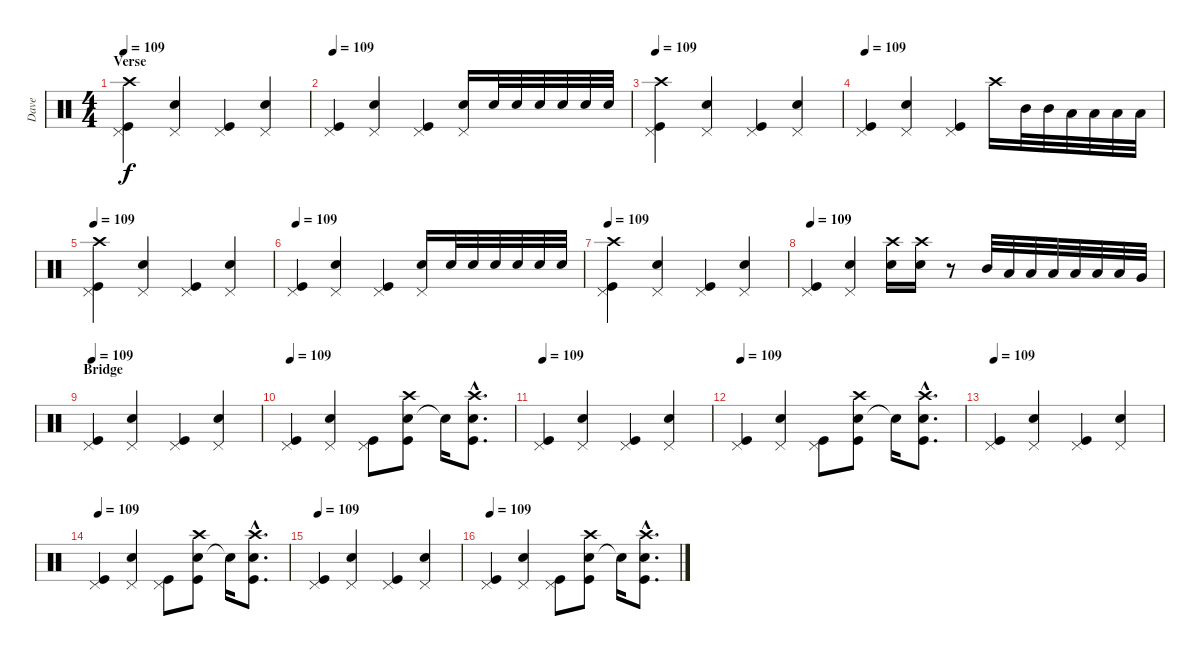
\track ("Dave" "Dave") {instrument percussion}
\staff {score}
\articulation defaults
\ts (4 4)
\section ("" "Verse")
\tempo 109
\clef neutral
\ks c
("Crash high (hit)" "Pedal Hi-Hat (hit)" "Kick (hit)").4{dy f} ("Pedal Hi-Hat (hit)" "Snare (hit) 2").4 ("Pedal Hi-Hat (hit)" "Kick (hit)").4 ("Pedal Hi-Hat (hit)" "Snare (hit) 2").4 |
\tempo 109
("Pedal Hi-Hat (hit)" "Kick (hit)").4 ("Pedal Hi-Hat (hit)" "Snare (hit) 2").4 ("Pedal Hi-Hat (hit)" "Kick (hit)").4 ("Pedal Hi-Hat (hit)" "Snare (hit) 2").16 "Snare (hit) 2".32 "Snare (hit) 2".32 "Snare (hit) 2".32 "Snare (hit) 2".32 "Snare (hit) 2".32 "Snare (hit) 2".32 |
\tempo 109
("Crash high (hit)" "Pedal Hi-Hat (hit)" "Kick (hit)").4 ("Pedal Hi-Hat (hit)" "Snare (hit) 2").4 ("Pedal Hi-Hat (hit)" "Kick (hit)").4 ("Pedal Hi-Hat (hit)" "Snare (hit) 2").4 |
\tempo 109
("Pedal Hi-Hat (hit)" "Kick (hit)").4 ("Pedal Hi-Hat (hit)" "Snare (hit) 2").4 ("Pedal Hi-Hat (hit)" "Kick (hit)").4 "Crash high (hit)".16 "Mid Tom (hit)".32 "Mid Tom (hit)".32 "Low Tom (hit)".32 "Low Tom (hit)".32 "Low Tom (hit)".32 "Low Tom (hit)".32 |
\tempo 109
("Crash high (hit)" "Pedal Hi-Hat (hit)" "Kick (hit)").4 ("Pedal Hi-Hat (hit)" "Snare (hit) 2").4 ("Pedal Hi-Hat (hit)" "Kick (hit)").4 ("Pedal Hi-Hat (hit)" "Snare (hit) 2").4 |
\tempo 109
("Pedal Hi-Hat (hit)" "Kick (hit)").4 ("Pedal Hi-Hat (hit)" "Snare (hit) 2").4 ("Pedal Hi-Hat (hit)" "Kick (hit)").4 ("Pedal Hi-Hat (hit)" "Snare (hit) 2").16 "Snare (hit) 2".32 "Snare (hit) 2".32 "Snare (hit) 2".32 "Snare (hit) 2".32 "Snare (hit) 2".32 "Snare (hit) 2".32 |
\tempo 109
("Crash high (hit)" "Pedal Hi-Hat (hit)" "Kick (hit)").4 ("Pedal Hi-Hat (hit)" "Snare (hit) 2").4 ("Pedal Hi-Hat (hit)" "Kick (hit)").4 ("Pedal Hi-Hat (hit)" "Snare (hit) 2").4 |
\tempo 109
("Pedal Hi-Hat (hit)" "Kick (hit)").4 ("Pedal Hi-Hat (hit)" "Snare (hit) 2").4 ("Crash high (hit)" "Snare (hit) 2").16 ("Crash high (hit)" "Snare (hit) 2").16 r.8 "Mid Tom (hit)".32 "Low Tom (hit)".32 "Low Tom (hit)".32 "Low Tom (hit)".32 "Low Tom (hit)".32 "Low Tom (hit)".32 "Low Tom (hit)".32 "Very Low Tom (hit)".32 |
\section ("" "Bridge")
\tempo 109
("Pedal Hi-Hat (hit)" "Kick (hit)").4 ("Pedal Hi-Hat (hit)" "Snare (hit) 2").4 ("Pedal Hi-Hat (hit)" "Kick (hit)").4 ("Pedal Hi-Hat (hit)" "Snare (hit) 2").4 |
\tempo 109
("Pedal Hi-Hat (hit)" "Kick (hit)").4 ("Pedal Hi-Hat (hit)" "Snare (hit) 2").4 ("Pedal Hi-Hat (hit)" "Kick (hit)").8 ("Snare (hit) 2" "Crash high (hit)" "Kick (hit)").8 "Snare (hit)"{t}.16 ("Snare (hit) 2"{hac} "Crash high (hit)"{hac} "Kick (hit)"{hac}).8{d} |
\tempo 109
("Pedal Hi-Hat (hit)" "Kick (hit)").4 ("Pedal Hi-Hat (hit)" "Snare (hit) 2").4 ("Pedal Hi-Hat (hit)" "Kick (hit)").4 ("Pedal Hi-Hat (hit)" "Snare (hit) 2").4 |
\tempo 109
("Pedal Hi-Hat (hit)" "Kick (hit)").4 ("Pedal Hi-Hat (hit)" "Snare (hit) 2").4 ("Pedal Hi-Hat (hit)" "Kick (hit)").8 ("Snare (hit) 2" "Crash high (hit)" "Kick (hit)").8 "Snare (hit)"{t}.16 ("Snare (hit) 2"{hac} "Crash high (hit)"{hac} "Kick (hit)"{hac}).8{d} |
\tempo 109
("Pedal Hi-Hat (hit)" "Kick (hit)").4 ("Pedal Hi-Hat (hit)" "Snare (hit) 2").4 ("Pedal Hi-Hat (hit)" "Kick (hit)").4 ("Pedal Hi-Hat (hit)" "Snare (hit) 2").4 |
\tempo 109
("Pedal Hi-Hat (hit)" "Kick (hit)").4 ("Pedal Hi-Hat (hit)" "Snare (hit) 2").4 ("Pedal Hi-Hat (hit)" "Kick (hit)").8 ("Snare (hit) 2" "Crash high (hit)" "Kick (hit)").8 "Snare (hit)"{t}.16 ("Snare (hit) 2"{hac} "Crash high (hit)"{hac} "Kick (hit)"{hac}).8{d} |
\tempo 109
("Pedal Hi-Hat (hit)" "Kick (hit)").4 ("Pedal Hi-Hat (hit)" "Snare (hit) 2").4 ("Pedal Hi-Hat (hit)" "Kick (hit)").4 ("Pedal Hi-Hat (hit)" "Snare (hit) 2").4 |
\tempo 109
("Pedal Hi-Hat (hit)" "Kick (hit)").4 ("Pedal Hi-Hat (hit)" "Snare (hit) 2").4 ("Pedal Hi-Hat (hit)" "Kick (hit)").8 ("Snare (hit) 2" "Crash high (hit)" "Kick (hit)").8 "Snare (hit)"{t}.16 ("Snare (hit) 2"{hac} "Crash high (hit)"{hac} "Kick (hit)"{hac}).8{d}
